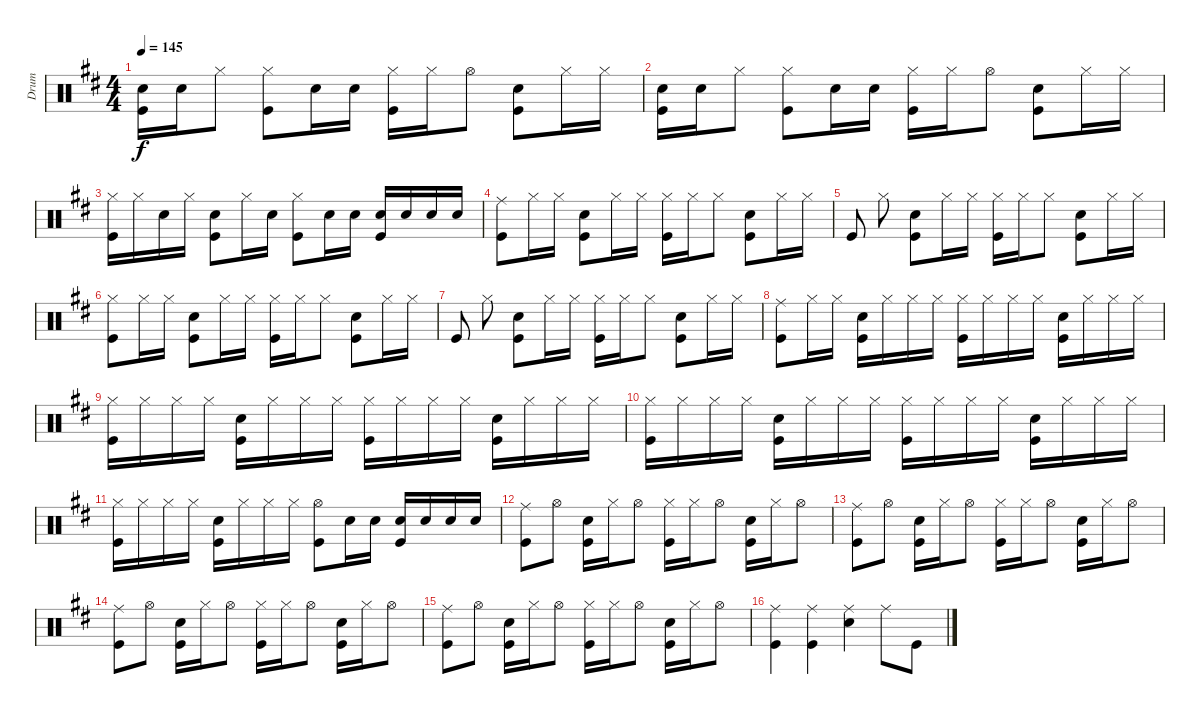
\track ("     Drum" "     Drum") {instrument percussion}
\staff {score}
\articulation defaults
\ts (4 4)
\tempo 145
\clef neutral
\ks d
("Snare (hit) 2" "Kick (hit)").16{dy f} "Snare (hit) 2".16 "Hi-Hat (closed)".8 ("Hi-Hat (closed)" "Kick (hit)").8 "Snare (hit) 2".16 "Snare (hit) 2".16 ("Hi-Hat (closed)" "Kick (hit)").16 "Hi-Hat (closed)".16 "Hi-Hat (open)".8 ("Snare (hit) 2" "Kick (hit)").8 "Hi-Hat (closed)".16 "Hi-Hat (closed)".16 |
("Snare (hit) 2" "Kick (hit)").16 "Snare (hit) 2".16 "Hi-Hat (closed)".8 ("Hi-Hat (closed)" "Kick (hit)").8 "Snare (hit) 2".16 "Snare (hit) 2".16 ("Hi-Hat (closed)" "Kick (hit)").16 "Hi-Hat (closed)".16 "Hi-Hat (open)".8 ("Snare (hit) 2" "Kick (hit)").8 "Hi-Hat (closed)".16 "Hi-Hat (closed)".16 |
("Hi-Hat (closed)" "Kick (hit)").16 "Hi-Hat (closed)".16 "Snare (hit) 2".16 "Hi-Hat (closed)".16 ("Snare (hit) 2" "Kick (hit)").8 "Hi-Hat (closed)".16 "Snare (hit) 2".16 ("Hi-Hat (closed)" "Kick (hit)").8 "Snare (hit) 2".16 "Snare (hit) 2".16 ("Snare (hit) 2" "Kick (hit)").16 "Snare (hit) 2".16 "Snare (hit) 2".16 "Snare (hit) 2".16 |
("Ride (middle)" "Kick (hit)").8 "Hi-Hat (closed)".16 "Hi-Hat (closed)".16 ("Snare (hit) 2" "Kick (hit)").8 "Hi-Hat (closed)".16 "Hi-Hat (closed)".16 ("Hi-Hat (closed)" "Kick (hit)").16 "Hi-Hat (closed)".16 "Hi-Hat (closed)".8 ("Snare (hit) 2" "Kick (hit)").8 "Hi-Hat (closed)".16 "Hi-Hat (closed)".16 |
"Kick (hit)".8{beam split} "Hi-Hat (closed)".8{beam split} ("Snare (hit) 2" "Kick (hit)").8{beam merge} "Hi-Hat (closed)".16 "Hi-Hat (closed)".16{beam split} ("Hi-Hat (closed)" "Kick (hit)").16 "Hi-Hat (closed)".16{beam merge} "Hi-Hat (closed)".8 ("Snare (hit) 2" "Kick (hit)").8 "Hi-Hat (closed)".16 "Hi-Hat (closed)".16 |
("Hi-Hat (closed)" "Kick (hit)").8 "Hi-Hat (closed)".16 "Hi-Hat (closed)".16 ("Snare (hit) 2" "Kick (hit)").8 "Hi-Hat (closed)".16 "Hi-Hat (closed)".16 ("Hi-Hat (closed)" "Kick (hit)").16 "Hi-Hat (closed)".16 "Hi-Hat (closed)".8 ("Snare (hit) 2" "Kick (hit)").8 "Hi-Hat (closed)".16 "Hi-Hat (closed)".16 |
"Kick (hit)".8{beam split} "Hi-Hat (closed)".8{beam split} ("Snare (hit) 2" "Kick (hit)").8{beam merge} "Hi-Hat (closed)".16 "Hi-Hat (closed)".16{beam split} ("Hi-Hat (closed)" "Kick (hit)").16 "Hi-Hat (closed)".16{beam merge} "Hi-Hat (closed)".8 ("Snare (hit) 2" "Kick (hit)").8 "Hi-Hat (closed)".16 "Hi-Hat (closed)".16 |
("Ride (middle)" "Kick (hit)").8 "Hi-Hat (closed)".16 "Hi-Hat (closed)".16 ("Snare (hit) 2" "Kick (hit)").16 "Hi-Hat (closed)".16 "Hi-Hat (closed)".16 "Hi-Hat (closed)".16 ("Hi-Hat (closed)" "Kick (hit)").16 "Hi-Hat (closed)".16 "Hi-Hat (closed)".16 "Hi-Hat (closed)".16 ("Snare (hit) 2" "Kick (hit)").16 "Hi-Hat (closed)".16 "Hi-Hat (closed)".16 "Hi-Hat (closed)".16 |
("Hi-Hat (closed)" "Kick (hit)").16 "Hi-Hat (closed)".16 "Hi-Hat (closed)".16 "Hi-Hat (closed)".16 ("Snare (hit) 2" "Kick (hit)").16 "Hi-Hat (closed)".16 "Hi-Hat (closed)".16 "Hi-Hat (closed)".16 ("Hi-Hat (closed)" "Kick (hit)").16 "Hi-Hat (closed)".16 "Hi-Hat (closed)".16 "Hi-Hat (closed)".16 ("Snare (hit) 2" "Kick (hit)").16 "Hi-Hat (closed)".16 "Hi-Hat (closed)".16 "Hi-Hat (closed)".16 |
("Hi-Hat (closed)" "Kick (hit)").16 "Hi-Hat (closed)".16 "Hi-Hat (closed)".16 "Hi-Hat (closed)".16 ("Snare (hit) 2" "Kick (hit)").16 "Hi-Hat (closed)".16 "Hi-Hat (closed)".16 "Hi-Hat (closed)".16 ("Hi-Hat (closed)" "Kick (hit)").16 "Hi-Hat (closed)".16 "Hi-Hat (closed)".16 "Hi-Hat (closed)".16 ("Snare (hit) 2" "Kick (hit)").16 "Hi-Hat (closed)".16 "Hi-Hat (closed)".16 "Hi-Hat (closed)".16 |
("Hi-Hat (closed)" "Kick (hit)").16 "Hi-Hat (closed)".16 "Hi-Hat (closed)".16 "Hi-Hat (closed)".16 ("Snare (hit) 2" "Kick (hit)").16 "Hi-Hat (closed)".16 "Hi-Hat (closed)".16 "Hi-Hat (closed)".16 ("Hi-Hat (open)" "Kick (hit)").8 "Snare (hit) 2".16 "Snare (hit) 2".16 ("Snare (hit) 2" "Kick (hit)").16 "Snare (hit) 2".16 "Snare (hit) 2".16 "Snare (hit) 2".16 |
("Ride (middle)" "Kick (hit)").8 "Hi-Hat (open)".8 ("Snare (hit) 2" "Kick (hit)").16 "Hi-Hat (closed)".16 "Hi-Hat (open)".8 ("Hi-Hat (closed)" "Kick (hit)").16 "Hi-Hat (closed)".16 "Hi-Hat (open)".8 ("Snare (hit) 2" "Kick (hit)").16 "Hi-Hat (closed)".16 "Hi-Hat (open)".8 |
("Ride (middle)" "Kick (hit)").8 "Hi-Hat (open)".8 ("Snare (hit) 2" "Kick (hit)").16 "Hi-Hat (closed)".16 "Hi-Hat (open)".8 ("Hi-Hat (closed)" "Kick (hit)").16 "Hi-Hat (closed)".16 "Hi-Hat (open)".8 ("Snare (hit) 2" "Kick (hit)").16 "Hi-Hat (closed)".16 "Hi-Hat (open)".8 |
("Ride (middle)" "Kick (hit)").8 "Hi-Hat (open)".8 ("Snare (hit) 2" "Kick (hit)").16 "Hi-Hat (closed)".16 "Hi-Hat (open)".8 ("Hi-Hat (closed)" "Kick (hit)").16 "Hi-Hat (closed)".16 "Hi-Hat (open)".8 ("Snare (hit) 2" "Kick (hit)").16 "Hi-Hat (closed)".16 "Hi-Hat (open)".8 |
("Ride (middle)" "Kick (hit)").8 "Hi-Hat (open)".8 ("Snare (hit) 2" "Kick (hit)").16 "Hi-Hat (closed)".16 "Hi-Hat (open)".8 ("Hi-Hat (closed)" "Kick (hit)").16 "Hi-Hat (closed)".16 "Hi-Hat (open)".8 ("Snare (hit) 2" "Kick (hit)").16 "Hi-Hat (closed)".16 "Hi-Hat (open)".8 |
("Ride (middle)" "Kick (hit)").4 ("Ride (middle)" "Kick (hit)").4 ("Ride (middle)" "Snare (hit) 2").4 "Ride (middle)".8 "Kick (hit)".8
